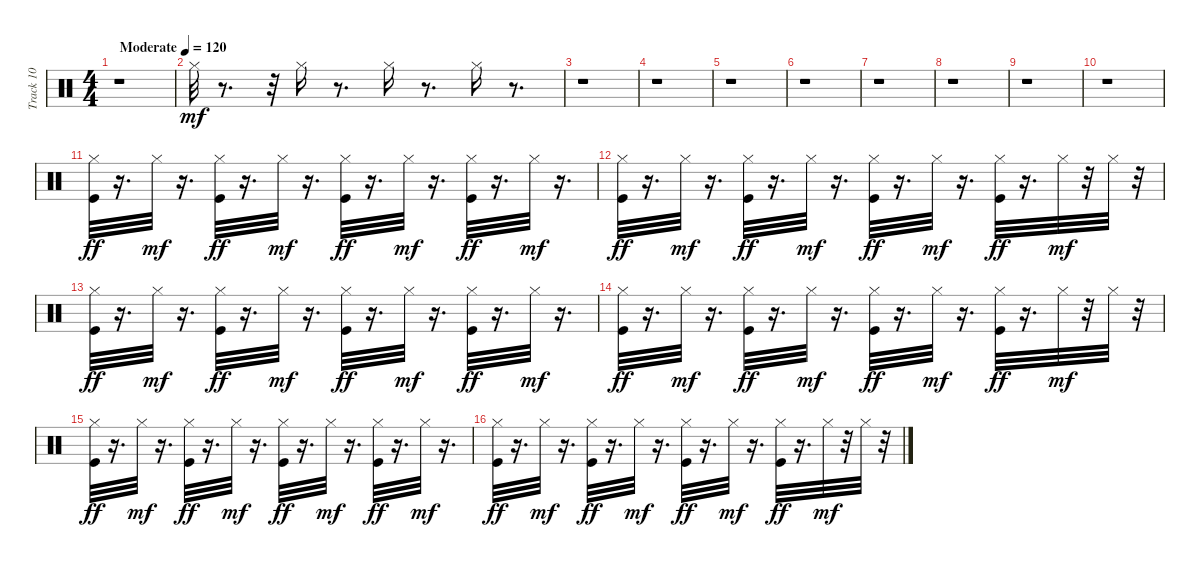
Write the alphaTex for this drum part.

\track ("Track 10" "Track 10") {instrument percussion}
\staff {score}
\articulation defaults
\ts (4 4)
\tempo (120 "Moderate")
\clef neutral
\ks c
r.1{dy mf} |
"Hi-Hat (closed)".32 r.8{d} r.32 "Hi-Hat (closed)".16 r.8{d} "Hi-Hat (closed)".16 r.8{d} "Hi-Hat (closed)".16 r.8{d} |
r.1 |
r.1 |
r.1 |
r.1 |
r.1 |
r.1 |
r.1 |
r.1 |
("Kick (hit)" "Hi-Hat (closed)").32{dy ff} r.16{d} "Hi-Hat (closed)".32{dy mf} r.16{d} ("Kick (hit)" "Hi-Hat (closed)").32{dy ff} r.16{d} "Hi-Hat (closed)".32{dy mf} r.16{d} ("Kick (hit)" "Hi-Hat (closed)").32{dy ff} r.16{d} "Hi-Hat (closed)".32{dy mf} r.16{d} ("Kick (hit)" "Hi-Hat (closed)").32{dy ff} r.16{d} "Hi-Hat (closed)".32{dy mf} r.16{d} |
("Kick (hit)" "Hi-Hat (closed)").32{dy ff} r.16{d} "Hi-Hat (closed)".32{dy mf} r.16{d} ("Kick (hit)" "Hi-Hat (closed)").32{dy ff} r.16{d} "Hi-Hat (closed)".32{dy mf} r.16{d} ("Kick (hit)" "Hi-Hat (closed)").32{dy ff} r.16{d} "Hi-Hat (closed)".32{dy mf} r.16{d} ("Kick (hit)" "Hi-Hat (closed)").32{dy ff} r.16{d} "Hi-Hat (closed)".32{dy mf} r.32 "Hi-Hat (closed)".32 r.32 |
("Kick (hit)" "Hi-Hat (closed)").32{dy ff} r.16{d} "Hi-Hat (closed)".32{dy mf} r.16{d} ("Kick (hit)" "Hi-Hat (closed)").32{dy ff} r.16{d} "Hi-Hat (closed)".32{dy mf} r.16{d} ("Kick (hit)" "Hi-Hat (closed)").32{dy ff} r.16{d} "Hi-Hat (closed)".32{dy mf} r.16{d} ("Kick (hit)" "Hi-Hat (closed)").32{dy ff} r.16{d} "Hi-Hat (closed)".32{dy mf} r.16{d} |
("Kick (hit)" "Hi-Hat (closed)").32{dy ff} r.16{d} "Hi-Hat (closed)".32{dy mf} r.16{d} ("Kick (hit)" "Hi-Hat (closed)").32{dy ff} r.16{d} "Hi-Hat (closed)".32{dy mf} r.16{d} ("Kick (hit)" "Hi-Hat (closed)").32{dy ff} r.16{d} "Hi-Hat (closed)".32{dy mf} r.16{d} ("Kick (hit)" "Hi-Hat (closed)").32{dy ff} r.16{d} "Hi-Hat (closed)".32{dy mf} r.32 "Hi-Hat (closed)".32 r.32 |
("Kick (hit)" "Hi-Hat (closed)").32{dy ff} r.16{d} "Hi-Hat (closed)".32{dy mf} r.16{d} ("Kick (hit)" "Hi-Hat (closed)").32{dy ff} r.16{d} "Hi-Hat (closed)".32{dy mf} r.16{d} ("Kick (hit)" "Hi-Hat (closed)").32{dy ff} r.16{d} "Hi-Hat (closed)".32{dy mf} r.16{d} ("Kick (hit)" "Hi-Hat (closed)").32{dy ff} r.16{d} "Hi-Hat (closed)".32{dy mf} r.16{d} |
("Kick (hit)" "Hi-Hat (closed)").32{dy ff} r.16{d} "Hi-Hat (closed)".32{dy mf} r.16{d} ("Kick (hit)" "Hi-Hat (closed)").32{dy ff} r.16{d} "Hi-Hat (closed)".32{dy mf} r.16{d} ("Kick (hit)" "Hi-Hat (closed)").32{dy ff} r.16{d} "Hi-Hat (closed)".32{dy mf} r.16{d} ("Kick (hit)" "Hi-Hat (closed)").32{dy ff} r.16{d} "Hi-Hat (closed)".32{dy mf} r.32 "Hi-Hat (closed)".32 r.32
